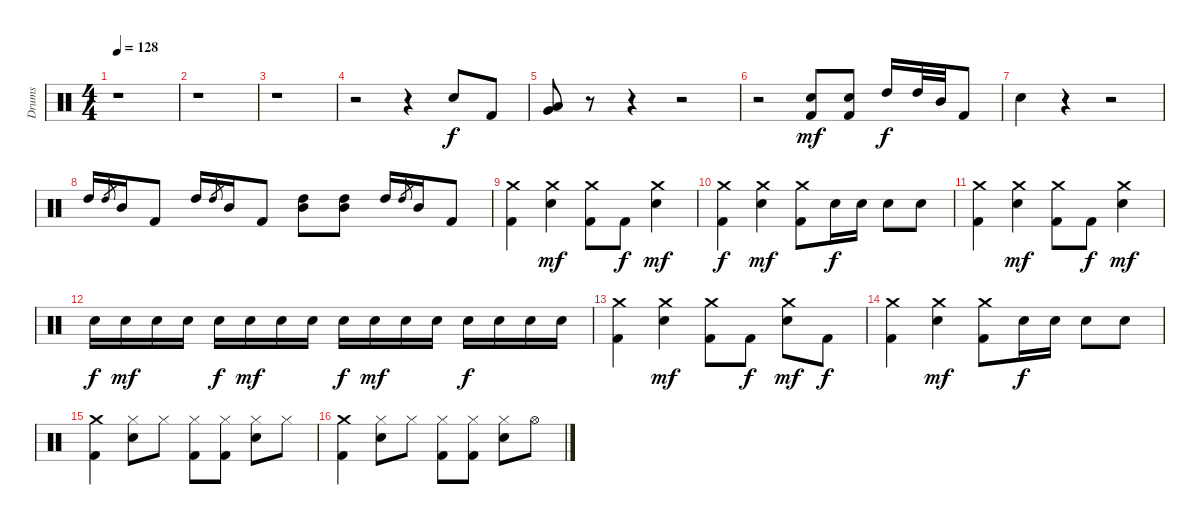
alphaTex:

\track ("Drums" "Drums") {instrument percussion}
\staff {score}
\articulation defaults
\ts (4 4)
\tempo 128
\clef neutral
\ks c
r.1{dy f} |
r.1 |
r.1 |
r.2 r.4 "Snare (hit) 2".8 "Kick (hit) 2".8 |
("Low Tom (hit)" "Very Low Tom (hit)").8 r.8 r.4 r.2 |
r.2 ("Snare (hit) 2" "Kick (hit) 2").8{dy mf} ("Snare (hit) 2" "Kick (hit) 2").8 "High Tom (hit)".16{dy f} "High Tom (hit)".32 "Mid Tom (hit)".32 "Kick (hit) 2".8 |
"Snare (hit) 2".4 r.4 r.2 |
"High Tom (hit)".16 "High Tom (hit)".8{gr} "Mid Tom (hit)".16 "Kick (hit) 2".8 "High Tom (hit)".16 "High Tom (hit)".8{gr} "Mid Tom (hit)".16 "Kick (hit) 2".8 ("High Tom (hit)" "Mid Tom (hit)").8 ("High Tom (hit)" "Mid Tom (hit)").8 "High Tom (hit)".16 "High Tom (hit)".8{gr} "Mid Tom (hit)".16 "Kick (hit) 2".8 |
("Crash medium (hit)" "Kick (hit) 2").4 ("Crash medium (hit)" "Snare (hit) 2").4{dy mf} ("Crash medium (hit)" "Kick (hit) 2").8 "Kick (hit) 2".8{dy f} ("Crash medium (hit)" "Snare (hit) 2").4{dy mf} |
("Crash medium (hit)" "Kick (hit) 2").4{dy f} ("Crash medium (hit)" "Snare (hit) 2").4{dy mf} ("Crash medium (hit)" "Kick (hit) 2").8 "Snare (hit) 2".16{dy f} "Snare (hit) 2".16 "Snare (hit) 2".8 "Snare (hit) 2".8 |
("Crash medium (hit)" "Kick (hit) 2").4 ("Crash medium (hit)" "Snare (hit) 2").4{dy mf} ("Crash medium (hit)" "Kick (hit) 2").8 "Kick (hit) 2".8{dy f} ("Crash medium (hit)" "Snare (hit) 2").4{dy mf} |
"Snare (hit) 2".16{dy f} "Snare (hit) 2".16{dy mf} "Snare (hit) 2".16 "Snare (hit) 2".16 "Snare (hit) 2".16{dy f} "Snare (hit) 2".16{dy mf} "Snare (hit) 2".16 "Snare (hit) 2".16 "Snare (hit) 2".16{dy f} "Snare (hit) 2".16{dy mf} "Snare (hit) 2".16 "Snare (hit) 2".16 "Snare (hit) 2".16{dy f} "Snare (hit) 2".16 "Snare (hit) 2".16 "Snare (hit) 2".16 |
("Crash medium (hit)" "Kick (hit) 2").4 ("Crash medium (hit)" "Snare (hit) 2").4{dy mf} ("Crash medium (hit)" "Kick (hit) 2").8 "Kick (hit) 2".8{dy f} ("Crash medium (hit)" "Snare (hit) 2").8{dy mf} "Kick (hit) 2".8{dy f} |
("Crash medium (hit)" "Kick (hit) 2").4 ("Crash medium (hit)" "Snare (hit) 2").4{dy mf} ("Crash medium (hit)" "Kick (hit) 2").8 "Snare (hit) 2".16{dy f} "Snare (hit) 2".16 "Snare (hit) 2".8 "Snare (hit) 2".8 |
("Crash medium (hit)" "Kick (hit) 2").4 ("Hi-Hat (closed)" "Snare (hit) 2").8 "Hi-Hat (closed)".8 ("Hi-Hat (closed)" "Kick (hit) 2").8 ("Hi-Hat (closed)" "Kick (hit) 2").8 ("Hi-Hat (closed)" "Snare (hit) 2").8 "Hi-Hat (closed)".8 |
("Crash medium (hit)" "Kick (hit) 2").4 ("Hi-Hat (closed)" "Snare (hit) 2").8 "Hi-Hat (closed)".8 ("Hi-Hat (closed)" "Kick (hit) 2").8 ("Hi-Hat (closed)" "Kick (hit) 2").8 ("Hi-Hat (closed)" "Snare (hit) 2").8 "Hi-Hat (open)".8
